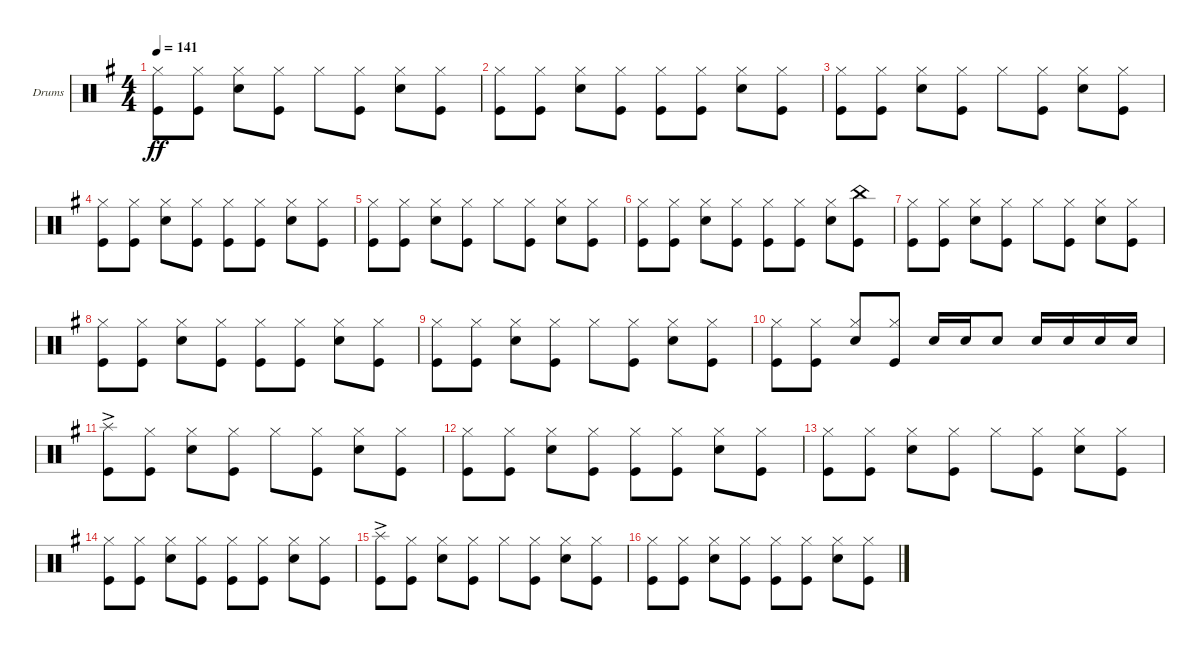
\defaultSystemsLayout 4
\bracketExtendMode groupsimilarinstruments
\firstSystemTrackNameOrientation horizontal
\otherSystemsTrackNameOrientation horizontal
\track ("Drumkit" "Drums") {instrument percussion}
\staff {score}
\articulation defaults
\ts (4 4)
\tempo 141
\clef neutral
\scale
0.333333
\ks g
("Kick (hit)" "Hi-Hat (closed)").8{dy ff} ("Kick (hit)" "Hi-Hat (closed)").8 ("Snare (hit) 2" "Hi-Hat (closed)").8 ("Hi-Hat (closed)" "Kick (hit)").8 "Hi-Hat (closed)".8 ("Kick (hit)" "Hi-Hat (closed)").8 ("Snare (hit) 2" "Hi-Hat (closed)").8 ("Kick (hit)" "Hi-Hat (closed)").8 |
\scale
0.333333 ("Kick (hit)" "Hi-Hat (closed)").8 ("Kick (hit)" "Hi-Hat (closed)").8 ("Snare (hit) 2" "Hi-Hat (closed)").8 ("Kick (hit)" "Hi-Hat (closed)").8 ("Kick (hit)" "Hi-Hat (closed)").8 ("Kick (hit)" "Hi-Hat (closed)").8 ("Snare (hit) 2" "Hi-Hat (closed)").8 ("Kick (hit)" "Hi-Hat (closed)").8 |
\scale
0.333333 ("Kick (hit)" "Hi-Hat (closed)").8 ("Kick (hit)" "Hi-Hat (closed)").8 ("Snare (hit) 2" "Hi-Hat (closed)").8 ("Kick (hit)" "Hi-Hat (closed)").8 "Hi-Hat (closed)".8 ("Kick (hit)" "Hi-Hat (closed)").8 ("Snare (hit) 2" "Hi-Hat (closed)").8 ("Kick (hit)" "Hi-Hat (closed)").8 |
\scale
0.333333 ("Kick (hit)" "Hi-Hat (closed)").8 ("Kick (hit)" "Hi-Hat (closed)").8 ("Snare (hit) 2" "Hi-Hat (closed)").8 ("Kick (hit)" "Hi-Hat (closed)").8 ("Kick (hit)" "Hi-Hat (closed)").8 ("Kick (hit)" "Hi-Hat (closed)").8 ("Snare (hit) 2" "Hi-Hat (closed)").8 ("Kick (hit)" "Hi-Hat (closed)").8 |
\scale
0.333333 ("Kick (hit)" "Hi-Hat (closed)").8 ("Kick (hit)" "Hi-Hat (closed)").8 ("Snare (hit) 2" "Hi-Hat (closed)").8 ("Hi-Hat (closed)" "Kick (hit)").8 "Hi-Hat (closed)".8 ("Kick (hit)" "Hi-Hat (closed)").8 ("Snare (hit) 2" "Hi-Hat (closed)").8 ("Kick (hit)" "Hi-Hat (closed)").8 |
\scale
0.333333 ("Kick (hit)" "Hi-Hat (closed)").8 ("Kick (hit)" "Hi-Hat (closed)").8 ("Snare (hit) 2" "Hi-Hat (closed)").8 ("Kick (hit)" "Hi-Hat (closed)").8 ("Kick (hit)" "Hi-Hat (closed)").8 ("Kick (hit)" "Hi-Hat (closed)").8 ("Snare (hit) 2" "Hi-Hat (closed)").8 ("Kick (hit)" "China (hit)").8 |
\scale
0.333333 ("Kick (hit)" "Hi-Hat (closed)").8 ("Kick (hit)" "Hi-Hat (closed)").8 ("Snare (hit) 2" "Hi-Hat (closed)").8 ("Hi-Hat (closed)" "Kick (hit)").8 "Hi-Hat (closed)".8 ("Kick (hit)" "Hi-Hat (closed)").8 ("Snare (hit) 2" "Hi-Hat (closed)").8 ("Kick (hit)" "Hi-Hat (closed)").8 |
\scale
0.333333 ("Kick (hit)" "Hi-Hat (closed)").8 ("Kick (hit)" "Hi-Hat (closed)").8 ("Snare (hit) 2" "Hi-Hat (closed)").8 ("Kick (hit)" "Hi-Hat (closed)").8 ("Kick (hit)" "Hi-Hat (closed)").8 ("Kick (hit)" "Hi-Hat (closed)").8 ("Snare (hit) 2" "Hi-Hat (closed)").8 ("Kick (hit)" "Hi-Hat (closed)").8 |
\scale
0.333333 ("Kick (hit)" "Hi-Hat (closed)").8 ("Kick (hit)" "Hi-Hat (closed)").8 ("Snare (hit) 2" "Hi-Hat (closed)").8 ("Hi-Hat (closed)" "Kick (hit)").8 "Hi-Hat (closed)".8 ("Kick (hit)" "Hi-Hat (closed)").8 ("Snare (hit) 2" "Hi-Hat (closed)").8 ("Kick (hit)" "Hi-Hat (closed)").8 |
\scale
0.333333 ("Kick (hit)" "Hi-Hat (closed)").8 ("Kick (hit)" "Hi-Hat (closed)").8 ("Snare (hit) 2" "Hi-Hat (closed)").8 ("Kick (hit)" "Hi-Hat (closed)").8 "Snare (hit) 2".16{beam invert} "Snare (hit) 2".16 "Snare (hit) 2".8 "Snare (hit) 2".16{beam invert} "Snare (hit) 2".16 "Snare (hit) 2".16 "Snare (hit) 2".16 |
\scale
0.333333 ("Kick (hit)" "Splash (hit)"{ac}).8 ("Kick (hit)" "Hi-Hat (closed)").8 ("Snare (hit) 2" "Hi-Hat (closed)").8 ("Kick (hit)" "Hi-Hat (closed)").8 "Hi-Hat (closed)".8 ("Kick (hit)" "Hi-Hat (closed)").8 ("Snare (hit) 2" "Hi-Hat (closed)").8 ("Kick (hit)" "Hi-Hat (closed)").8 |
\scale
0.333333 ("Kick (hit)" "Hi-Hat (closed)").8 ("Kick (hit)" "Hi-Hat (closed)").8 ("Snare (hit) 2" "Hi-Hat (closed)").8 ("Kick (hit)" "Hi-Hat (closed)").8 ("Kick (hit)" "Hi-Hat (closed)").8 ("Kick (hit)" "Hi-Hat (closed)").8 ("Snare (hit) 2" "Hi-Hat (closed)").8 ("Kick (hit)" "Hi-Hat (closed)").8 |
\scale
0.333333 ("Kick (hit)" "Hi-Hat (closed)").8 ("Kick (hit)" "Hi-Hat (closed)").8 ("Snare (hit) 2" "Hi-Hat (closed)").8 ("Hi-Hat (closed)" "Kick (hit)").8 "Hi-Hat (closed)".8 ("Kick (hit)" "Hi-Hat (closed)").8 ("Snare (hit) 2" "Hi-Hat (closed)").8 ("Kick (hit)" "Hi-Hat (closed)").8 |
\scale
0.333333 ("Kick (hit)" "Hi-Hat (closed)").8 ("Kick (hit)" "Hi-Hat (closed)").8 ("Snare (hit) 2" "Hi-Hat (closed)").8 ("Kick (hit)" "Hi-Hat (closed)").8 ("Kick (hit)" "Hi-Hat (closed)").8 ("Kick (hit)" "Hi-Hat (closed)").8 ("Snare (hit) 2" "Hi-Hat (closed)").8 ("Kick (hit)" "Hi-Hat (closed)").8 |
\scale
0.333333 ("Kick (hit)" "Splash (hit)"{ac}).8 ("Kick (hit)" "Hi-Hat (closed)").8 ("Snare (hit) 2" "Hi-Hat (closed)").8 ("Hi-Hat (closed)" "Kick (hit)").8 "Hi-Hat (closed)".8 ("Kick (hit)" "Hi-Hat (closed)").8 ("Snare (hit) 2" "Hi-Hat (closed)").8 ("Kick (hit)" "Hi-Hat (closed)").8 |
\scale
0.333333 ("Kick (hit)" "Hi-Hat (closed)").8 ("Kick (hit)" "Hi-Hat (closed)").8 ("Snare (hit) 2" "Hi-Hat (closed)").8 ("Kick (hit)" "Hi-Hat (closed)").8 ("Kick (hit)" "Hi-Hat (closed)").8 ("Kick (hit)" "Hi-Hat (closed)").8 ("Snare (hit) 2" "Hi-Hat (closed)").8 ("Kick (hit)" "Hi-Hat (closed)").8
